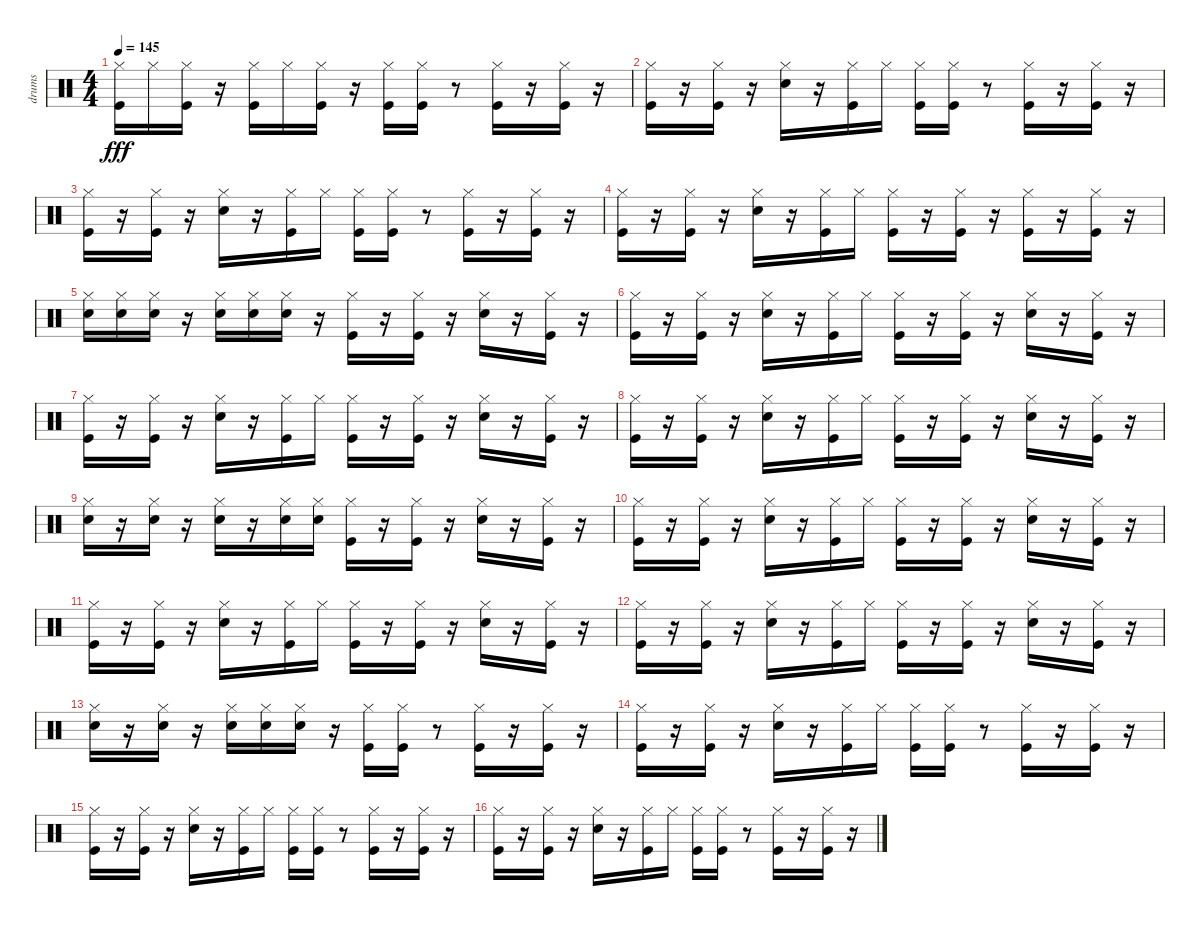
\track ("drums" "drums") {instrument percussion}
\staff {score}
\articulation defaults
\ts (4 4)
\tempo 145
\clef neutral
\ks c
("Kick (hit)" "Hi-Hat (closed)").16{dy fff} "Hi-Hat (closed)".16 ("Kick (hit)" "Hi-Hat (closed)").16 r.16 ("Kick (hit)" "Hi-Hat (closed)").16 "Hi-Hat (closed)".16 ("Kick (hit)" "Hi-Hat (closed)").16 r.16 ("Kick (hit)" "Hi-Hat (closed)").16 ("Kick (hit)" "Hi-Hat (closed)").16 r.8 ("Kick (hit)" "Hi-Hat (closed)").16 r.16 ("Kick (hit)" "Hi-Hat (closed)").16 r.16 |
("Kick (hit)" "Hi-Hat (closed)").16 r.16 ("Kick (hit)" "Hi-Hat (closed)").16 r.16 ("Snare (hit) 2" "Hi-Hat (closed)").16 r.16 ("Kick (hit)" "Hi-Hat (closed)").16 "Hi-Hat (closed)".16 ("Kick (hit)" "Hi-Hat (closed)").16 ("Kick (hit)" "Hi-Hat (closed)").16 r.8 ("Kick (hit)" "Hi-Hat (closed)").16 r.16 ("Kick (hit)" "Hi-Hat (closed)").16 r.16 |
("Kick (hit)" "Hi-Hat (closed)").16 r.16 ("Kick (hit)" "Hi-Hat (closed)").16 r.16 ("Snare (hit) 2" "Hi-Hat (closed)").16 r.16 ("Kick (hit)" "Hi-Hat (closed)").16 "Hi-Hat (closed)".16 ("Kick (hit)" "Hi-Hat (closed)").16 ("Kick (hit)" "Hi-Hat (closed)").16 r.8 ("Kick (hit)" "Hi-Hat (closed)").16 r.16 ("Kick (hit)" "Hi-Hat (closed)").16 r.16 |
("Kick (hit)" "Hi-Hat (closed)").16 r.16 ("Kick (hit)" "Hi-Hat (closed)").16 r.16 ("Snare (hit) 2" "Hi-Hat (closed)").16 r.16 ("Kick (hit)" "Hi-Hat (closed)").16 "Hi-Hat (closed)".16 ("Kick (hit)" "Hi-Hat (closed)").16 r.16 ("Kick (hit)" "Hi-Hat (closed)").16 r.16 ("Kick (hit)" "Hi-Hat (closed)").16 r.16 ("Kick (hit)" "Hi-Hat (closed)").16 r.16 |
("Snare (hit) 2" "Hi-Hat (closed)").16 ("Snare (hit) 2" "Hi-Hat (closed)").16 ("Snare (hit) 2" "Hi-Hat (closed)").16 r.16 ("Snare (hit) 2" "Hi-Hat (closed)").16 ("Snare (hit) 2" "Hi-Hat (closed)").16 ("Snare (hit) 2" "Hi-Hat (closed)").16 r.16 ("Kick (hit)" "Hi-Hat (closed)").16 r.16 ("Kick (hit)" "Hi-Hat (closed)").16 r.16 ("Snare (hit) 2" "Hi-Hat (closed)").16 r.16 ("Kick (hit)" "Hi-Hat (closed)").16 r.16 |
("Kick (hit)" "Hi-Hat (closed)").16 r.16 ("Kick (hit)" "Hi-Hat (closed)").16 r.16 ("Snare (hit) 2" "Hi-Hat (closed)").16 r.16 ("Kick (hit)" "Hi-Hat (closed)").16 "Hi-Hat (closed)".16 ("Kick (hit)" "Hi-Hat (closed)").16 r.16 ("Kick (hit)" "Hi-Hat (closed)").16 r.16 ("Snare (hit) 2" "Hi-Hat (closed)").16 r.16 ("Kick (hit)" "Hi-Hat (closed)").16 r.16 |
("Kick (hit)" "Hi-Hat (closed)").16 r.16 ("Kick (hit)" "Hi-Hat (closed)").16 r.16 ("Snare (hit) 2" "Hi-Hat (closed)").16 r.16 ("Kick (hit)" "Hi-Hat (closed)").16 "Hi-Hat (closed)".16 ("Kick (hit)" "Hi-Hat (closed)").16 r.16 ("Kick (hit)" "Hi-Hat (closed)").16 r.16 ("Snare (hit) 2" "Hi-Hat (closed)").16 r.16 ("Kick (hit)" "Hi-Hat (closed)").16 r.16 |
("Kick (hit)" "Hi-Hat (closed)").16 r.16 ("Kick (hit)" "Hi-Hat (closed)").16 r.16 ("Snare (hit) 2" "Hi-Hat (closed)").16 r.16 ("Kick (hit)" "Hi-Hat (closed)").16 "Hi-Hat (closed)".16 ("Kick (hit)" "Hi-Hat (closed)").16 r.16 ("Kick (hit)" "Hi-Hat (closed)").16 r.16 ("Snare (hit) 2" "Hi-Hat (closed)").16 r.16 ("Kick (hit)" "Hi-Hat (closed)").16 r.16 |
("Snare (hit) 2" "Hi-Hat (closed)").16 r.16 ("Snare (hit) 2" "Hi-Hat (closed)").16 r.16 ("Snare (hit) 2" "Hi-Hat (closed)").16 r.16 ("Snare (hit) 2" "Hi-Hat (closed)").16 ("Snare (hit) 2" "Hi-Hat (closed)").16 ("Kick (hit)" "Hi-Hat (closed)").16 r.16 ("Kick (hit)" "Hi-Hat (closed)").16 r.16 ("Snare (hit) 2" "Hi-Hat (closed)").16 r.16 ("Kick (hit)" "Hi-Hat (closed)").16 r.16 |
("Kick (hit)" "Hi-Hat (closed)").16 r.16 ("Kick (hit)" "Hi-Hat (closed)").16 r.16 ("Snare (hit) 2" "Hi-Hat (closed)").16 r.16 ("Kick (hit)" "Hi-Hat (closed)").16 "Hi-Hat (closed)".16 ("Kick (hit)" "Hi-Hat (closed)").16 r.16 ("Kick (hit)" "Hi-Hat (closed)").16 r.16 ("Snare (hit) 2" "Hi-Hat (closed)").16 r.16 ("Kick (hit)" "Hi-Hat (closed)").16 r.16 |
("Kick (hit)" "Hi-Hat (closed)").16 r.16 ("Kick (hit)" "Hi-Hat (closed)").16 r.16 ("Snare (hit) 2" "Hi-Hat (closed)").16 r.16 ("Kick (hit)" "Hi-Hat (closed)").16 "Hi-Hat (closed)".16 ("Kick (hit)" "Hi-Hat (closed)").16 r.16 ("Kick (hit)" "Hi-Hat (closed)").16 r.16 ("Snare (hit) 2" "Hi-Hat (closed)").16 r.16 ("Kick (hit)" "Hi-Hat (closed)").16 r.16 |
("Kick (hit)" "Hi-Hat (closed)").16 r.16 ("Kick (hit)" "Hi-Hat (closed)").16 r.16 ("Snare (hit) 2" "Hi-Hat (closed)").16 r.16 ("Kick (hit)" "Hi-Hat (closed)").16 "Hi-Hat (closed)".16 ("Kick (hit)" "Hi-Hat (closed)").16 r.16 ("Kick (hit)" "Hi-Hat (closed)").16 r.16 ("Snare (hit) 2" "Hi-Hat (closed)").16 r.16 ("Kick (hit)" "Hi-Hat (closed)").16 r.16 |
("Snare (hit) 2" "Hi-Hat (closed)").16 r.16 ("Snare (hit) 2" "Hi-Hat (closed)").16 r.16 ("Snare (hit) 2" "Hi-Hat (closed)").16 ("Snare (hit) 2" "Hi-Hat (closed)").16 ("Snare (hit) 2" "Hi-Hat (closed)").16 r.16 ("Kick (hit)" "Hi-Hat (closed)").16 ("Kick (hit)" "Hi-Hat (closed)").16 r.8 ("Kick (hit)" "Hi-Hat (closed)").16 r.16 ("Kick (hit)" "Hi-Hat (closed)").16 r.16 |
("Kick (hit)" "Hi-Hat (closed)").16 r.16 ("Kick (hit)" "Hi-Hat (closed)").16 r.16 ("Snare (hit) 2" "Hi-Hat (closed)").16 r.16 ("Kick (hit)" "Hi-Hat (closed)").16 "Hi-Hat (closed)".16 ("Kick (hit)" "Hi-Hat (closed)").16 ("Kick (hit)" "Hi-Hat (closed)").16 r.8 ("Kick (hit)" "Hi-Hat (closed)").16 r.16 ("Kick (hit)" "Hi-Hat (closed)").16 r.16 |
("Kick (hit)" "Hi-Hat (closed)").16 r.16 ("Kick (hit)" "Hi-Hat (closed)").16 r.16 ("Snare (hit) 2" "Hi-Hat (closed)").16 r.16 ("Kick (hit)" "Hi-Hat (closed)").16 "Hi-Hat (closed)".16 ("Kick (hit)" "Hi-Hat (closed)").16 ("Kick (hit)" "Hi-Hat (closed)").16 r.8 ("Kick (hit)" "Hi-Hat (closed)").16 r.16 ("Kick (hit)" "Hi-Hat (closed)").16 r.16 |
("Kick (hit)" "Hi-Hat (closed)").16 r.16 ("Kick (hit)" "Hi-Hat (closed)").16 r.16 ("Snare (hit) 2" "Hi-Hat (closed)").16 r.16 ("Kick (hit)" "Hi-Hat (closed)").16 "Hi-Hat (closed)".16 ("Kick (hit)" "Hi-Hat (closed)").16 ("Kick (hit)" "Hi-Hat (closed)").16 r.8 ("Kick (hit)" "Hi-Hat (closed)").16 r.16 ("Kick (hit)" "Hi-Hat (closed)").16 r.16
